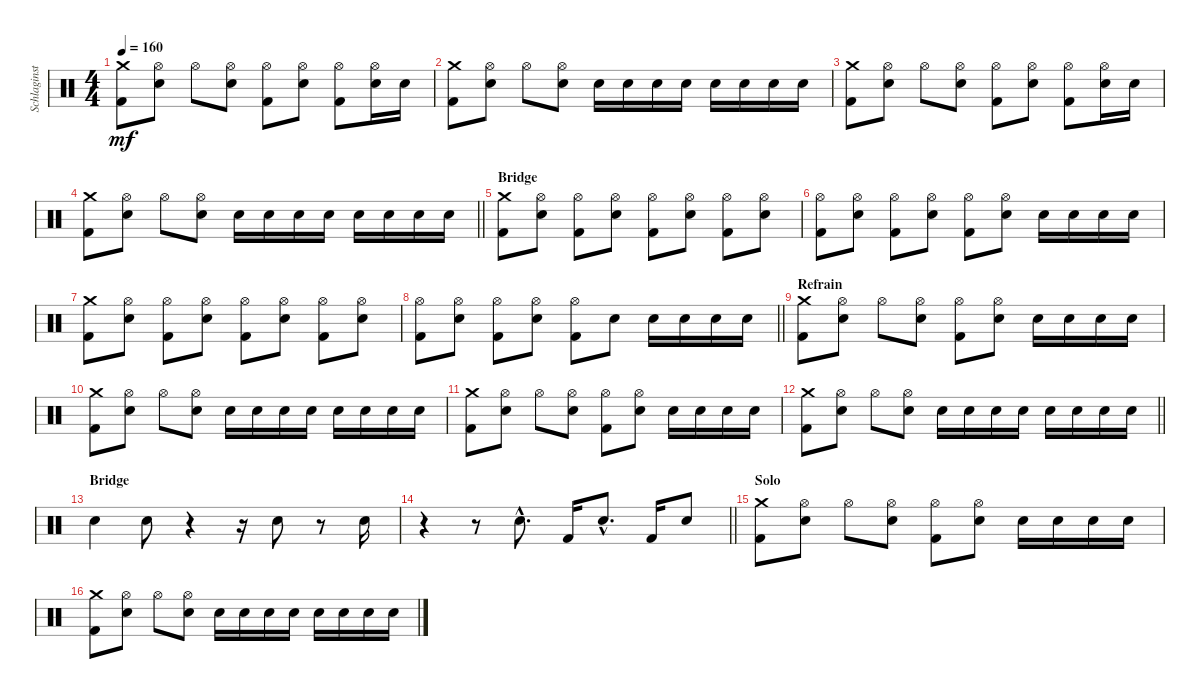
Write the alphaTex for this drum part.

\track ("Schlaginstrumente - Auswahl" "Schlaginst") {instrument percussion}
\staff {score}
\articulation defaults
\ts (4 4)
\tempo 160
\clef neutral
\ks c
("Crash medium (hit)" "Kick (hit) 2").8{dy mf} ("Hi-Hat (open)" "Snare (hit) 2").8 "Hi-Hat (open)".8 ("Hi-Hat (open)" "Snare (hit) 2").8 ("Hi-Hat (open)" "Kick (hit) 2").8 ("Hi-Hat (open)" "Snare (hit) 2").8 ("Hi-Hat (open)" "Kick (hit) 2").8 ("Hi-Hat (open)" "Snare (hit) 2").16 "Snare (hit) 2".16 |
("Crash medium (hit)" "Kick (hit) 2").8 ("Hi-Hat (open)" "Snare (hit) 2").8 "Hi-Hat (open)".8 ("Hi-Hat (open)" "Snare (hit) 2").8 "Snare (hit) 2".16 "Snare (hit) 2".16 "Snare (hit) 2".16 "Snare (hit) 2".16 "Snare (hit) 2".16 "Snare (hit) 2".16 "Snare (hit) 2".16 "Snare (hit) 2".16 |
("Crash medium (hit)" "Kick (hit) 2").8 ("Hi-Hat (open)" "Snare (hit) 2").8 "Hi-Hat (open)".8 ("Hi-Hat (open)" "Snare (hit) 2").8 ("Hi-Hat (open)" "Kick (hit) 2").8 ("Hi-Hat (open)" "Snare (hit) 2").8 ("Hi-Hat (open)" "Kick (hit) 2").8 ("Hi-Hat (open)" "Snare (hit) 2").16 "Snare (hit) 2".16 |
\barLineRight lightlight
("Crash medium (hit)" "Kick (hit) 2").8 ("Hi-Hat (open)" "Snare (hit) 2").8 "Hi-Hat (open)".8 ("Hi-Hat (open)" "Snare (hit) 2").8 "Snare (hit) 2".16 "Snare (hit) 2".16 "Snare (hit) 2".16 "Snare (hit) 2".16 "Snare (hit) 2".16 "Snare (hit) 2".16 "Snare (hit) 2".16 "Snare (hit) 2".16 |
\section ("" "Bridge")
("Crash medium (hit)" "Kick (hit) 2").8 ("Hi-Hat (open)" "Snare (hit) 2").8 ("Hi-Hat (open)" "Kick (hit) 2").8 ("Hi-Hat (open)" "Snare (hit) 2").8 ("Hi-Hat (open)" "Kick (hit) 2").8 ("Hi-Hat (open)" "Snare (hit) 2").8 ("Hi-Hat (open)" "Kick (hit) 2").8 ("Hi-Hat (open)" "Snare (hit) 2").8 |
("Hi-Hat (open)" "Kick (hit) 2").8 ("Hi-Hat (open)" "Snare (hit) 2").8 ("Hi-Hat (open)" "Kick (hit) 2").8 ("Hi-Hat (open)" "Snare (hit) 2").8 ("Hi-Hat (open)" "Kick (hit) 2").8 ("Hi-Hat (open)" "Snare (hit) 2").8 "Snare (hit) 2".16 "Snare (hit) 2".16 "Snare (hit) 2".16 "Snare (hit) 2".16 |
("Crash medium (hit)" "Kick (hit) 2").8 ("Hi-Hat (open)" "Snare (hit) 2").8 ("Hi-Hat (open)" "Kick (hit) 2").8 ("Hi-Hat (open)" "Snare (hit) 2").8 ("Hi-Hat (open)" "Kick (hit) 2").8 ("Hi-Hat (open)" "Snare (hit) 2").8 ("Hi-Hat (open)" "Kick (hit) 2").8 ("Hi-Hat (open)" "Snare (hit) 2").8 |
\barLineRight lightlight
("Hi-Hat (open)" "Kick (hit) 2").8 ("Hi-Hat (open)" "Snare (hit) 2").8 ("Hi-Hat (open)" "Kick (hit) 2").8 ("Hi-Hat (open)" "Snare (hit) 2").8 ("Hi-Hat (open)" "Kick (hit) 2").8 "Snare (hit) 2".8 "Snare (hit) 2".16 "Snare (hit) 2".16 "Snare (hit) 2".16 "Snare (hit) 2".16 |
\section ("" "Refrain")
("Crash medium (hit)" "Kick (hit) 2").8 ("Hi-Hat (open)" "Snare (hit) 2").8 "Hi-Hat (open)".8 ("Hi-Hat (open)" "Snare (hit) 2").8 ("Hi-Hat (open)" "Kick (hit) 2").8 ("Hi-Hat (open)" "Snare (hit) 2").8 "Snare (hit) 2".16 "Snare (hit) 2".16 "Snare (hit) 2".16 "Snare (hit) 2".16 |
("Crash medium (hit)" "Kick (hit) 2").8 ("Hi-Hat (open)" "Snare (hit) 2").8 "Hi-Hat (open)".8 ("Hi-Hat (open)" "Snare (hit) 2").8 "Snare (hit) 2".16 "Snare (hit) 2".16 "Snare (hit) 2".16 "Snare (hit) 2".16 "Snare (hit) 2".16 "Snare (hit) 2".16 "Snare (hit) 2".16 "Snare (hit) 2".16 |
("Crash medium (hit)" "Kick (hit) 2").8 ("Hi-Hat (open)" "Snare (hit) 2").8 "Hi-Hat (open)".8 ("Hi-Hat (open)" "Snare (hit) 2").8 ("Hi-Hat (open)" "Kick (hit) 2").8 ("Hi-Hat (open)" "Snare (hit) 2").8 "Snare (hit) 2".16 "Snare (hit) 2".16 "Snare (hit) 2".16 "Snare (hit) 2".16 |
\barLineRight lightlight
("Crash medium (hit)" "Kick (hit) 2").8 ("Hi-Hat (open)" "Snare (hit) 2").8 "Hi-Hat (open)".8 ("Hi-Hat (open)" "Snare (hit) 2").8 "Snare (hit) 2".16 "Snare (hit) 2".16 "Snare (hit) 2".16 "Snare (hit) 2".16 "Snare (hit) 2".16 "Snare (hit) 2".16 "Snare (hit) 2".16 "Snare (hit) 2".16 |
\section ("" "Bridge")
"Snare (hit) 2".4 "Snare (hit) 2".8 r.4 r.16 "Snare (hit) 2".8 r.8 "Snare (hit) 2".16 |
\barLineRight lightlight
r.4 r.8 "Snare (hit) 2"{hac}.8{d} "Kick (hit) 2".16 "Snare (hit) 2"{hac}.8{d} "Kick (hit) 2".16 "Snare (hit) 2".8 |
\section ("" "Solo")
("Crash medium (hit)" "Kick (hit) 2").8 ("Hi-Hat (open)" "Snare (hit) 2").8 "Hi-Hat (open)".8 ("Hi-Hat (open)" "Snare (hit) 2").8 ("Hi-Hat (open)" "Kick (hit) 2").8 ("Hi-Hat (open)" "Snare (hit) 2").8 "Snare (hit) 2".16 "Snare (hit) 2".16 "Snare (hit) 2".16 "Snare (hit) 2".16 |
("Crash medium (hit)" "Kick (hit) 2").8 ("Hi-Hat (open)" "Snare (hit) 2").8 "Hi-Hat (open)".8 ("Hi-Hat (open)" "Snare (hit) 2").8 "Snare (hit) 2".16 "Snare (hit) 2".16 "Snare (hit) 2".16 "Snare (hit) 2".16 "Snare (hit) 2".16 "Snare (hit) 2".16 "Snare (hit) 2".16 "Snare (hit) 2".16
